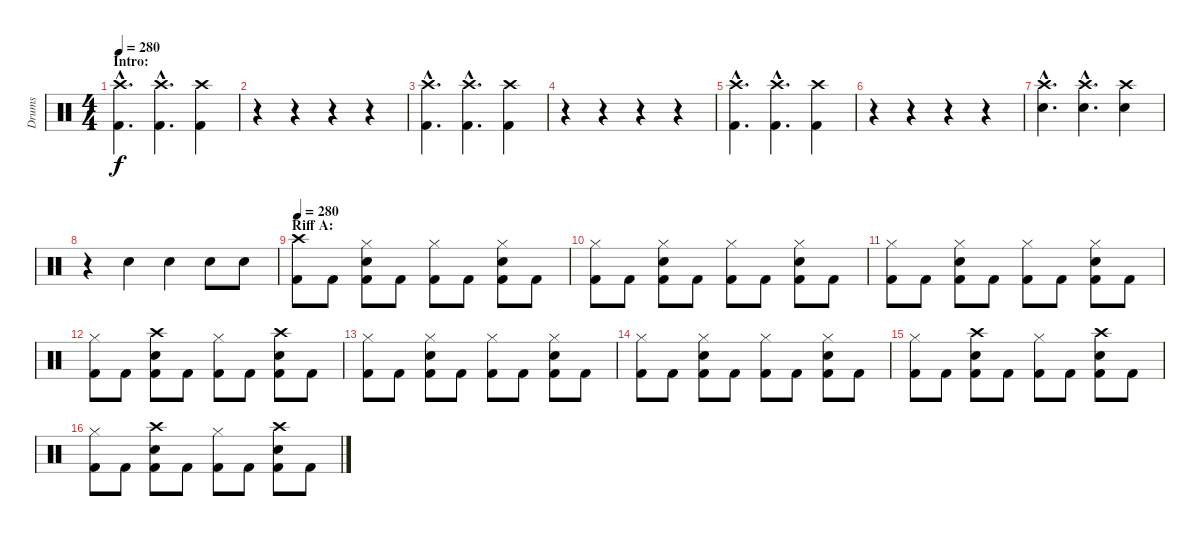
\track ("Drums" "Drums") {instrument percussion}
\staff {score}
\articulation defaults
\ts (4 4)
\section ("" "Intro:")
\tempo 280
\tempo 285
\tempo 280
\clef neutral
\ks c
("Crash high (hit)"{hac} "Kick (hit) 2"{hac}).4{d dy f} ("Crash high (hit)"{hac} "Kick (hit) 2"{hac}).4{d} ("Crash high (hit)" "Kick (hit) 2").4 |
r.4 r.4 r.4 r.4 |
("Crash high (hit)"{hac} "Kick (hit) 2"{hac}).4{d} ("Crash high (hit)"{hac} "Kick (hit) 2"{hac}).4{d} ("Crash high (hit)" "Kick (hit) 2").4 |
r.4 r.4 r.4 r.4 |
("Crash high (hit)"{hac} "Kick (hit) 2"{hac}).4{d} ("Crash high (hit)"{hac} "Kick (hit) 2"{hac}).4{d} ("Crash high (hit)" "Kick (hit) 2").4 |
r.4 r.4 r.4 r.4 |
("Crash high (hit)"{hac} "Snare (hit) 2"{hac}).4{d} ("Crash high (hit)"{hac} "Snare (hit) 2"{hac}).4{d} ("Crash high (hit)" "Snare (hit) 2").4 |
r.4 "Snare (hit) 2".4 "Snare (hit) 2".4 "Snare (hit) 2".8 "Snare (hit) 2".8 |
\section ("" "Riff A:")
\tempo 280
("Crash high (hit)" "Kick (hit) 2").8 "Kick (hit) 2".8 ("Hi-Hat (closed)" "Snare (hit) 2" "Kick (hit) 2").8 "Kick (hit) 2".8 ("Hi-Hat (closed)" "Kick (hit) 2").8 "Kick (hit) 2".8 ("Hi-Hat (closed)" "Snare (hit) 2" "Kick (hit) 2").8 "Kick (hit) 2".8 |
("Hi-Hat (closed)" "Kick (hit) 2").8 "Kick (hit) 2".8 ("Hi-Hat (closed)" "Snare (hit) 2" "Kick (hit) 2").8 "Kick (hit) 2".8 ("Hi-Hat (closed)" "Kick (hit) 2").8 "Kick (hit) 2".8 ("Hi-Hat (closed)" "Snare (hit) 2" "Kick (hit) 2").8 "Kick (hit) 2".8 |
("Hi-Hat (closed)" "Kick (hit) 2").8 "Kick (hit) 2".8 ("Hi-Hat (closed)" "Snare (hit) 2" "Kick (hit) 2").8 "Kick (hit) 2".8 ("Hi-Hat (closed)" "Kick (hit) 2").8 "Kick (hit) 2".8 ("Hi-Hat (closed)" "Snare (hit) 2" "Kick (hit) 2").8 "Kick (hit) 2".8 |
("Hi-Hat (closed)" "Kick (hit) 2").8 "Kick (hit) 2".8 ("Crash high (hit)" "Snare (hit) 2" "Kick (hit) 2").8 "Kick (hit) 2".8 ("Hi-Hat (closed)" "Kick (hit) 2").8 "Kick (hit) 2".8 ("Crash high (hit)" "Snare (hit) 2" "Kick (hit) 2").8 "Kick (hit) 2".8 |
("Hi-Hat (closed)" "Kick (hit) 2").8 "Kick (hit) 2".8 ("Hi-Hat (closed)" "Snare (hit) 2" "Kick (hit) 2").8 "Kick (hit) 2".8 ("Hi-Hat (closed)" "Kick (hit) 2").8 "Kick (hit) 2".8 ("Hi-Hat (closed)" "Snare (hit) 2" "Kick (hit) 2").8 "Kick (hit) 2".8 |
("Hi-Hat (closed)" "Kick (hit) 2").8 "Kick (hit) 2".8 ("Hi-Hat (closed)" "Snare (hit) 2" "Kick (hit) 2").8 "Kick (hit) 2".8 ("Hi-Hat (closed)" "Kick (hit) 2").8 "Kick (hit) 2".8 ("Hi-Hat (closed)" "Snare (hit) 2" "Kick (hit) 2").8 "Kick (hit) 2".8 |
("Hi-Hat (closed)" "Kick (hit) 2").8 "Kick (hit) 2".8 ("Crash high (hit)" "Snare (hit) 2" "Kick (hit) 2").8 "Kick (hit) 2".8 ("Hi-Hat (closed)" "Kick (hit) 2").8 "Kick (hit) 2".8 ("Crash high (hit)" "Snare (hit) 2" "Kick (hit) 2").8 "Kick (hit) 2".8 |
("Hi-Hat (closed)" "Kick (hit) 2").8 "Kick (hit) 2".8 ("Crash high (hit)" "Snare (hit) 2" "Kick (hit) 2").8 "Kick (hit) 2".8 ("Hi-Hat (closed)" "Kick (hit) 2").8 "Kick (hit) 2".8 ("Crash high (hit)" "Snare (hit) 2" "Kick (hit) 2").8 "Kick (hit) 2".8
